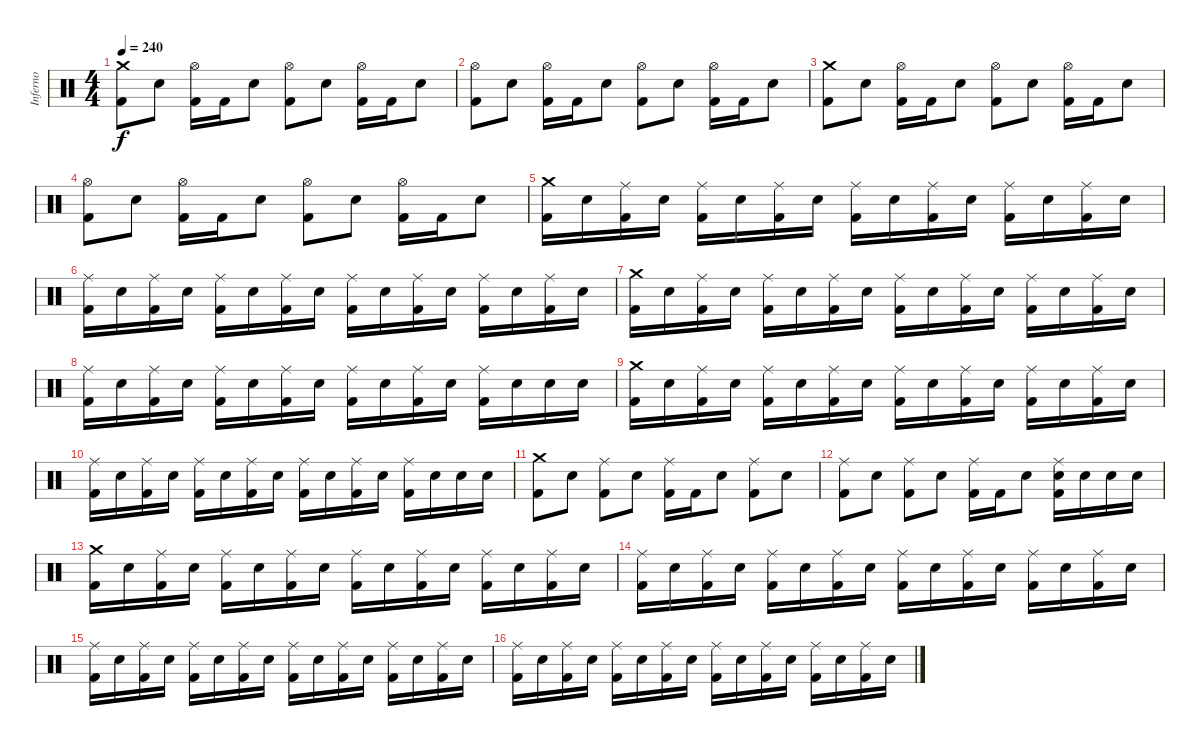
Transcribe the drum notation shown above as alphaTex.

\track ("Inferno" "Inferno") {instrument percussion}
\staff {score}
\articulation defaults
\ts (4 4)
\tempo 240
\clef neutral
\ks c
("Crash medium (hit)" "Kick (hit) 2").8{dy f} "Snare (hit) 2".8 ("Hi-Hat (open)" "Kick (hit) 2").16 "Kick (hit) 2".16 "Snare (hit) 2".8 ("Hi-Hat (open)" "Kick (hit) 2").8 "Snare (hit) 2".8 ("Hi-Hat (open)" "Kick (hit) 2").16 "Kick (hit) 2".16 "Snare (hit) 2".8 |
("Hi-Hat (open)" "Kick (hit) 2").8 "Snare (hit) 2".8 ("Hi-Hat (open)" "Kick (hit) 2").16 "Kick (hit) 2".16 "Snare (hit) 2".8 ("Hi-Hat (open)" "Kick (hit) 2").8 "Snare (hit) 2".8 ("Hi-Hat (open)" "Kick (hit) 2").16 "Kick (hit) 2".16 "Snare (hit) 2".8 |
("Crash medium (hit)" "Kick (hit) 2").8 "Snare (hit) 2".8 ("Hi-Hat (open)" "Kick (hit) 2").16 "Kick (hit) 2".16 "Snare (hit) 2".8 ("Hi-Hat (open)" "Kick (hit) 2").8 "Snare (hit) 2".8 ("Hi-Hat (open)" "Kick (hit) 2").16 "Kick (hit) 2".16 "Snare (hit) 2".8 |
("Hi-Hat (open)" "Kick (hit) 2").8 "Snare (hit) 2".8 ("Hi-Hat (open)" "Kick (hit) 2").16 "Kick (hit) 2".16 "Snare (hit) 2".8 ("Hi-Hat (open)" "Kick (hit) 2").8 "Snare (hit) 2".8 ("Hi-Hat (open)" "Kick (hit) 2").16 "Kick (hit) 2".16 "Snare (hit) 2".8 |
("Crash medium (hit)" "Kick (hit) 2").16 "Snare (hit) 2".16 ("Ride (middle)" "Kick (hit) 2").16 "Snare (hit) 2".16 ("Ride (middle)" "Kick (hit) 2").16 "Snare (hit) 2".16 ("Ride (middle)" "Kick (hit) 2").16 "Snare (hit) 2".16 ("Ride (middle)" "Kick (hit) 2").16 "Snare (hit) 2".16 ("Ride (middle)" "Kick (hit) 2").16 "Snare (hit) 2".16 ("Ride (middle)" "Kick (hit) 2").16 "Snare (hit) 2".16 ("Ride (middle)" "Kick (hit) 2").16 "Snare (hit) 2".16 |
("Ride (middle)" "Kick (hit) 2").16 "Snare (hit) 2".16 ("Ride (middle)" "Kick (hit) 2").16 "Snare (hit) 2".16 ("Ride (middle)" "Kick (hit) 2").16 "Snare (hit) 2".16 ("Ride (middle)" "Kick (hit) 2").16 "Snare (hit) 2".16 ("Ride (middle)" "Kick (hit) 2").16 "Snare (hit) 2".16 ("Ride (middle)" "Kick (hit) 2").16 "Snare (hit) 2".16 ("Ride (middle)" "Kick (hit) 2").16 "Snare (hit) 2".16 ("Ride (middle)" "Kick (hit) 2").16 "Snare (hit) 2".16 |
("Crash medium (hit)" "Kick (hit) 2").16 "Snare (hit) 2".16 ("Ride (middle)" "Kick (hit) 2").16 "Snare (hit) 2".16 ("Ride (middle)" "Kick (hit) 2").16 "Snare (hit) 2".16 ("Ride (middle)" "Kick (hit) 2").16 "Snare (hit) 2".16 ("Ride (middle)" "Kick (hit) 2").16 "Snare (hit) 2".16 ("Ride (middle)" "Kick (hit) 2").16 "Snare (hit) 2".16 ("Ride (middle)" "Kick (hit) 2").16 "Snare (hit) 2".16 ("Ride (middle)" "Kick (hit) 2").16 "Snare (hit) 2".16 |
("Ride (middle)" "Kick (hit) 2").16 "Snare (hit) 2".16 ("Ride (middle)" "Kick (hit) 2").16 "Snare (hit) 2".16 ("Ride (middle)" "Kick (hit) 2").16 "Snare (hit) 2".16 ("Ride (middle)" "Kick (hit) 2").16 "Snare (hit) 2".16 ("Ride (middle)" "Kick (hit) 2").16 "Snare (hit) 2".16 ("Ride (middle)" "Kick (hit) 2").16 "Snare (hit) 2".16 ("Ride (middle)" "Kick (hit) 2").16 "Snare (hit) 2".16 "Snare (hit) 2".16 "Snare (hit) 2".16 |
("Crash medium (hit)" "Kick (hit) 2").16 "Snare (hit) 2".16 ("Ride (middle)" "Kick (hit) 2").16 "Snare (hit) 2".16 ("Ride (middle)" "Kick (hit) 2").16 "Snare (hit) 2".16 ("Ride (middle)" "Kick (hit) 2").16 "Snare (hit) 2".16 ("Ride (middle)" "Kick (hit) 2").16 "Snare (hit) 2".16 ("Ride (middle)" "Kick (hit) 2").16 "Snare (hit) 2".16 ("Ride (middle)" "Kick (hit) 2").16 "Snare (hit) 2".16 ("Ride (middle)" "Kick (hit) 2").16 "Snare (hit) 2".16 |
("Ride (middle)" "Kick (hit) 2").16 "Snare (hit) 2".16 ("Ride (middle)" "Kick (hit) 2").16 "Snare (hit) 2".16 ("Ride (middle)" "Kick (hit) 2").16 "Snare (hit) 2".16 ("Ride (middle)" "Kick (hit) 2").16 "Snare (hit) 2".16 ("Ride (middle)" "Kick (hit) 2").16 "Snare (hit) 2".16 ("Ride (middle)" "Kick (hit) 2").16 "Snare (hit) 2".16 ("Ride (middle)" "Kick (hit) 2").16 "Snare (hit) 2".16 "Snare (hit) 2".16 "Snare (hit) 2".16 |
("Crash medium (hit)" "Kick (hit) 2").8 "Snare (hit) 2".8 ("Ride (middle)" "Kick (hit) 2").8 "Snare (hit) 2".8 ("Ride (middle)" "Kick (hit) 2").16 "Kick (hit) 2".16 "Snare (hit) 2".8 ("Ride (middle)" "Kick (hit) 2").8 "Snare (hit) 2".8 |
("Ride (middle)" "Kick (hit) 2").8 "Snare (hit) 2".8 ("Ride (middle)" "Kick (hit) 2").8 "Snare (hit) 2".8 ("Ride (middle)" "Kick (hit) 2").16 "Kick (hit) 2".16 "Snare (hit) 2".8 ("Ride (middle)" "Snare (hit) 2" "Kick (hit) 2").16 "Snare (hit) 2".16 "Snare (hit) 2".16 "Snare (hit) 2".16 |
("Crash medium (hit)" "Kick (hit) 2").16 "Snare (hit) 2".16 ("Ride (middle)" "Kick (hit) 2").16 "Snare (hit) 2".16 ("Ride (middle)" "Kick (hit) 2").16 "Snare (hit) 2".16 ("Ride (middle)" "Kick (hit) 2").16 "Snare (hit) 2".16 ("Ride (middle)" "Kick (hit) 2").16 "Snare (hit) 2".16 ("Ride (middle)" "Kick (hit) 2").16 "Snare (hit) 2".16 ("Ride (middle)" "Kick (hit) 2").16 "Snare (hit) 2".16 ("Ride (middle)" "Kick (hit) 2").16 "Snare (hit) 2".16 |
("Ride (middle)" "Kick (hit) 2").16 "Snare (hit) 2".16 ("Ride (middle)" "Kick (hit) 2").16 "Snare (hit) 2".16 ("Ride (middle)" "Kick (hit) 2").16 "Snare (hit) 2".16 ("Ride (middle)" "Kick (hit) 2").16 "Snare (hit) 2".16 ("Ride (middle)" "Kick (hit) 2").16 "Snare (hit) 2".16 ("Ride (middle)" "Kick (hit) 2").16 "Snare (hit) 2".16 ("Ride (middle)" "Kick (hit) 2").16 "Snare (hit) 2".16 ("Ride (middle)" "Kick (hit) 2").16 "Snare (hit) 2".16 |
("Ride (middle)" "Kick (hit) 2").16 "Snare (hit) 2".16 ("Ride (middle)" "Kick (hit) 2").16 "Snare (hit) 2".16 ("Ride (middle)" "Kick (hit) 2").16 "Snare (hit) 2".16 ("Ride (middle)" "Kick (hit) 2").16 "Snare (hit) 2".16 ("Ride (middle)" "Kick (hit) 2").16 "Snare (hit) 2".16 ("Ride (middle)" "Kick (hit) 2").16 "Snare (hit) 2".16 ("Ride (middle)" "Kick (hit) 2").16 "Snare (hit) 2".16 ("Ride (middle)" "Kick (hit) 2").16 "Snare (hit) 2".16 |
("Ride (middle)" "Kick (hit) 2").16 "Snare (hit) 2".16 ("Ride (middle)" "Kick (hit) 2").16 "Snare (hit) 2".16 ("Ride (middle)" "Kick (hit) 2").16 "Snare (hit) 2".16 ("Ride (middle)" "Kick (hit) 2").16 "Snare (hit) 2".16 ("Ride (middle)" "Kick (hit) 2").16 "Snare (hit) 2".16 ("Ride (middle)" "Kick (hit) 2").16 "Snare (hit) 2".16 ("Ride (middle)" "Kick (hit) 2").16 "Snare (hit) 2".16 ("Ride (middle)" "Kick (hit) 2").16 "Snare (hit) 2".16
